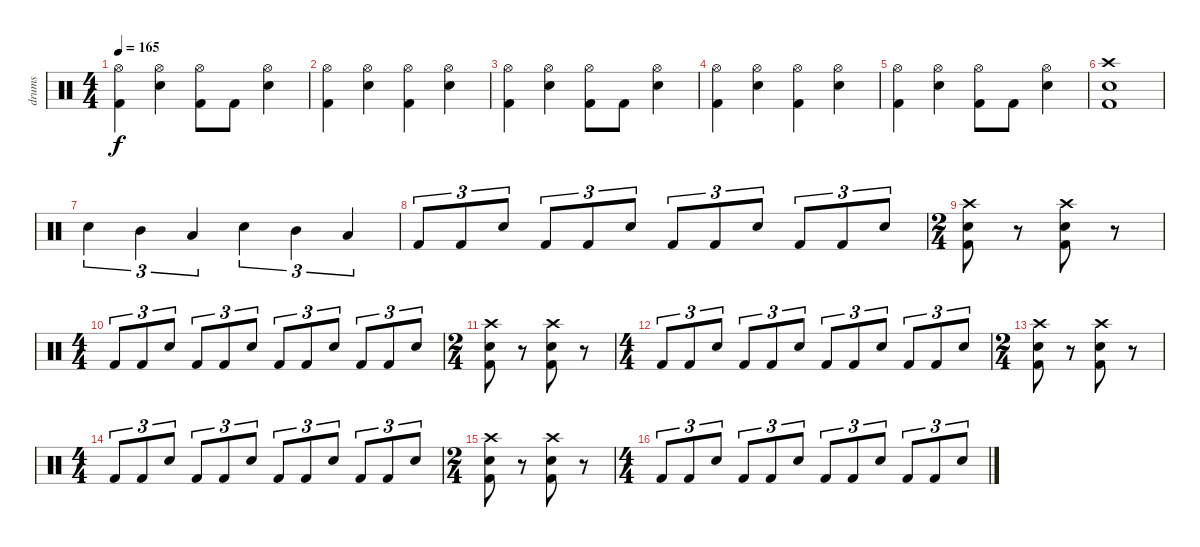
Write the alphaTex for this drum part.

\track ("drums" "drums") {instrument percussion}
\staff {score}
\articulation defaults
\ts (4 4)
\tempo 165
\clef neutral
\ks c
("Hi-Hat (open)" "Kick (hit) 2").4{dy f} ("Hi-Hat (open)" "Electric Snare (hit)").4 ("Hi-Hat (open)" "Kick (hit) 2").8 "Kick (hit) 2".8 ("Hi-Hat (open)" "Electric Snare (hit)").4 |
("Hi-Hat (open)" "Kick (hit) 2").4 ("Hi-Hat (open)" "Electric Snare (hit)").4 ("Hi-Hat (open)" "Kick (hit) 2").4 ("Hi-Hat (open)" "Electric Snare (hit)").4 |
("Hi-Hat (open)" "Kick (hit) 2").4 ("Hi-Hat (open)" "Electric Snare (hit)").4 ("Hi-Hat (open)" "Kick (hit) 2").8 "Kick (hit) 2".8 ("Hi-Hat (open)" "Electric Snare (hit)").4 |
("Hi-Hat (open)" "Kick (hit) 2").4 ("Hi-Hat (open)" "Electric Snare (hit)").4 ("Hi-Hat (open)" "Kick (hit) 2").4 ("Hi-Hat (open)" "Electric Snare (hit)").4 |
("Hi-Hat (open)" "Kick (hit) 2").4 ("Hi-Hat (open)" "Electric Snare (hit)").4 ("Hi-Hat (open)" "Kick (hit) 2").8 "Kick (hit) 2".8 ("Hi-Hat (open)" "Electric Snare (hit)").4 |
("Crash high (hit)" "Electric Snare (hit)" "Kick (hit) 2").1 |
"Electric Snare (hit)".4{tu (3 2)} "Mid Tom (hit)".4{tu (3 2)} "Low Tom (hit)".4{tu (3 2)} "Electric Snare (hit)".4{tu (3 2)} "Mid Tom (hit)".4{tu (3 2)} "Low Tom (hit)".4{tu (3 2)} |
"Kick (hit) 2".8{tu (3 2)} "Kick (hit) 2".8{tu (3 2)} "Electric Snare (hit)".8{tu (3 2)} "Kick (hit) 2".8{tu (3 2)} "Kick (hit) 2".8{tu (3 2)} "Electric Snare (hit)".8{tu (3 2)} "Kick (hit) 2".8{tu (3 2)} "Kick (hit) 2".8{tu (3 2)} "Electric Snare (hit)".8{tu (3 2)} "Kick (hit) 2".8{tu (3 2)} "Kick (hit) 2".8{tu (3 2)} "Electric Snare (hit)".8{tu (3 2)} |
\ts (2 4)
("Crash high (hit)" "Kick (hit) 2" "Electric Snare (hit)").8 r.8 ("Crash high (hit)" "Electric Snare (hit)" "Kick (hit) 2").8 r.8 |
\ts (4 4)
"Kick (hit) 2".8{tu (3 2)} "Kick (hit) 2".8{tu (3 2)} "Electric Snare (hit)".8{tu (3 2)} "Kick (hit) 2".8{tu (3 2)} "Kick (hit) 2".8{tu (3 2)} "Electric Snare (hit)".8{tu (3 2)} "Kick (hit) 2".8{tu (3 2)} "Kick (hit) 2".8{tu (3 2)} "Electric Snare (hit)".8{tu (3 2)} "Kick (hit) 2".8{tu (3 2)} "Kick (hit) 2".8{tu (3 2)} "Electric Snare (hit)".8{tu (3 2)} |
\ts (2 4)
("Crash high (hit)" "Kick (hit) 2" "Electric Snare (hit)").8 r.8 ("Crash high (hit)" "Electric Snare (hit)" "Kick (hit) 2").8 r.8 |
\ts (4 4)
"Kick (hit) 2".8{tu (3 2)} "Kick (hit) 2".8{tu (3 2)} "Electric Snare (hit)".8{tu (3 2)} "Kick (hit) 2".8{tu (3 2)} "Kick (hit) 2".8{tu (3 2)} "Electric Snare (hit)".8{tu (3 2)} "Kick (hit) 2".8{tu (3 2)} "Kick (hit) 2".8{tu (3 2)} "Electric Snare (hit)".8{tu (3 2)} "Kick (hit) 2".8{tu (3 2)} "Kick (hit) 2".8{tu (3 2)} "Electric Snare (hit)".8{tu (3 2)} |
\ts (2 4)
("Crash high (hit)" "Kick (hit) 2" "Electric Snare (hit)").8 r.8 ("Crash high (hit)" "Electric Snare (hit)" "Kick (hit) 2").8 r.8 |
\ts (4 4)
"Kick (hit) 2".8{tu (3 2)} "Kick (hit) 2".8{tu (3 2)} "Electric Snare (hit)".8{tu (3 2)} "Kick (hit) 2".8{tu (3 2)} "Kick (hit) 2".8{tu (3 2)} "Electric Snare (hit)".8{tu (3 2)} "Kick (hit) 2".8{tu (3 2)} "Kick (hit) 2".8{tu (3 2)} "Electric Snare (hit)".8{tu (3 2)} "Kick (hit) 2".8{tu (3 2)} "Kick (hit) 2".8{tu (3 2)} "Electric Snare (hit)".8{tu (3 2)} |
\ts (2 4)
("Crash high (hit)" "Kick (hit) 2" "Electric Snare (hit)").8 r.8 ("Crash high (hit)" "Electric Snare (hit)" "Kick (hit) 2").8 r.8 |
\ts (4 4)
"Kick (hit) 2".8{tu (3 2)} "Kick (hit) 2".8{tu (3 2)} "Electric Snare (hit)".8{tu (3 2)} "Kick (hit) 2".8{tu (3 2)} "Kick (hit) 2".8{tu (3 2)} "Electric Snare (hit)".8{tu (3 2)} "Kick (hit) 2".8{tu (3 2)} "Kick (hit) 2".8{tu (3 2)} "Electric Snare (hit)".8{tu (3 2)} "Kick (hit) 2".8{tu (3 2)} "Kick (hit) 2".8{tu (3 2)} "Electric Snare (hit)".8{tu (3 2)}
